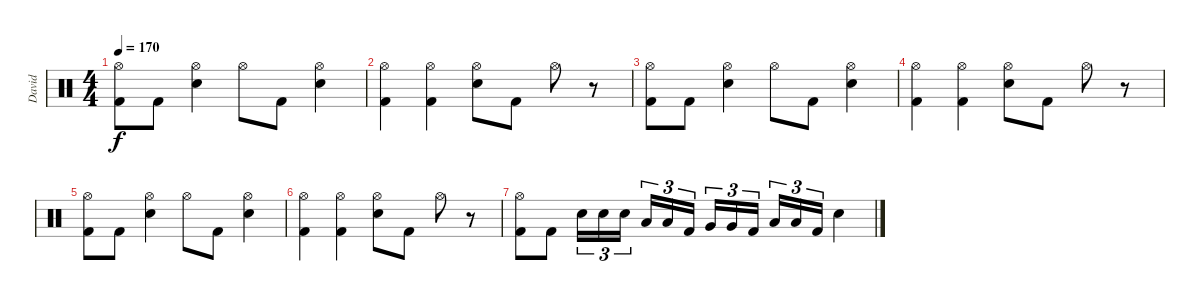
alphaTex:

\track ("David" "David") {instrument percussion}
\staff {score}
\articulation defaults
\ts (4 4)
\tempo 170
\clef neutral
\ks c
("Hi-Hat (open)" "Kick (hit) 2").8{dy f} "Kick (hit) 2".8 ("Hi-Hat (open)" "Snare (hit) 2").4 "Hi-Hat (open)".8 "Kick (hit) 2".8 ("Hi-Hat (open)" "Snare (hit) 2").4 |
("Hi-Hat (open)" "Kick (hit) 2").4 ("Hi-Hat (open)" "Kick (hit) 2").4 ("Hi-Hat (open)" "Snare (hit) 2").8 "Kick (hit) 2".8 "Hi-Hat (open)".8 r.8 |
("Hi-Hat (open)" "Kick (hit) 2").8 "Kick (hit) 2".8 ("Hi-Hat (open)" "Snare (hit) 2").4 "Hi-Hat (open)".8 "Kick (hit) 2".8 ("Hi-Hat (open)" "Snare (hit) 2").4 |
("Hi-Hat (open)" "Kick (hit) 2").4 ("Hi-Hat (open)" "Kick (hit) 2").4 ("Hi-Hat (open)" "Snare (hit) 2").8 "Kick (hit) 2".8 "Hi-Hat (open)".8 r.8 |
("Hi-Hat (open)" "Kick (hit) 2").8 "Kick (hit) 2".8 ("Hi-Hat (open)" "Snare (hit) 2").4 "Hi-Hat (open)".8 "Kick (hit) 2".8 ("Hi-Hat (open)" "Snare (hit) 2").4 |
("Hi-Hat (open)" "Kick (hit) 2").4 ("Hi-Hat (open)" "Kick (hit) 2").4 ("Hi-Hat (open)" "Snare (hit) 2").8 "Kick (hit) 2".8 "Hi-Hat (open)".8 r.8 |
("Hi-Hat (open)" "Kick (hit) 2").8 "Kick (hit) 2".8 "Snare (hit) 2".16{tu (3 2)} "Snare (hit) 2".16{tu (3 2)} "Snare (hit) 2".16{tu (3 2) beam splitsecondary} "Low Tom (hit)".16{tu (3 2)} "Low Tom (hit)".16{tu (3 2)} "Kick (hit) 2".16{tu (3 2)} "Very Low Tom (hit)".16{tu (3 2)} "Very Low Tom (hit)".16{tu (3 2)} "Kick (hit) 2".16{tu (3 2) beam splitsecondary} "Low Floor Tom (hit)".16{tu (3 2)} "Low Floor Tom (hit)".16{tu (3 2)} "Kick (hit) 2".16{tu (3 2)} "Snare (hit) 2".4
